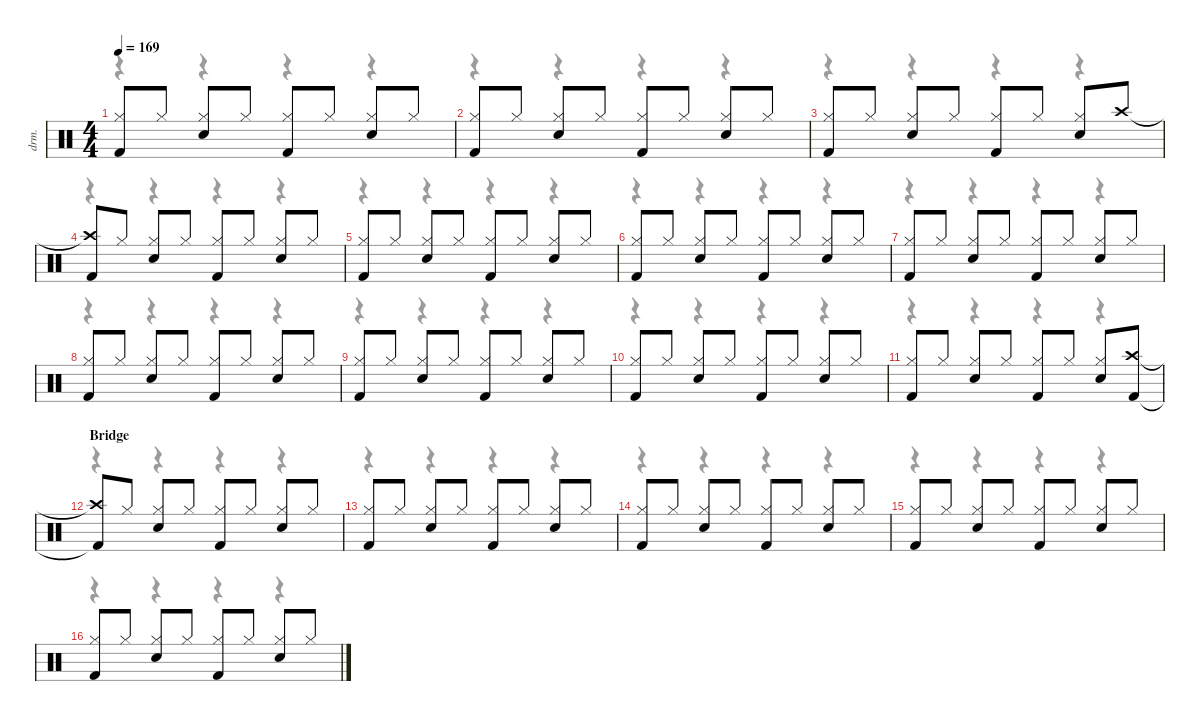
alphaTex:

\defaultSystemsLayout 4
\hideDynamics
\bracketExtendMode nobrackets
\otherSystemsTrackNameOrientation horizontal
\track ("Drums" "drm.") {instrument percussion}
\staff {score}
\articulation defaults
\voice
\ts (4 4)
\tempo 169
\clef neutral
\ks c
("Hi-Hat (closed)" "Kick (hit) 2").8{dy f} "Hi-Hat (closed)".8 ("Hi-Hat (closed)" "Snare (hit) 2").8 "Hi-Hat (closed)".8 ("Hi-Hat (closed)" "Kick (hit) 2").8 "Hi-Hat (closed)".8 ("Hi-Hat (closed)" "Snare (hit) 2").8 "Hi-Hat (closed)".8 |
("Hi-Hat (closed)" "Kick (hit) 2").8 "Hi-Hat (closed)".8 ("Hi-Hat (closed)" "Snare (hit) 2").8 "Hi-Hat (closed)".8 ("Hi-Hat (closed)" "Kick (hit) 2").8 "Hi-Hat (closed)".8 ("Hi-Hat (closed)" "Snare (hit) 2").8 "Hi-Hat (closed)".8 |
("Hi-Hat (closed)" "Kick (hit) 2").8 "Hi-Hat (closed)".8 ("Hi-Hat (closed)" "Snare (hit) 2").8 "Hi-Hat (closed)".8 ("Hi-Hat (closed)" "Kick (hit) 2").8 "Hi-Hat (closed)".8 ("Hi-Hat (closed)" "Snare (hit) 2").8 "Crash high (hit)".8 |
("Crash high (hit)"{t} "Kick (hit) 2").8 "Hi-Hat (closed)".8 ("Hi-Hat (closed)" "Snare (hit) 2").8 "Hi-Hat (closed)".8 ("Hi-Hat (closed)" "Kick (hit) 2").8 "Hi-Hat (closed)".8 ("Hi-Hat (closed)" "Snare (hit) 2").8 "Hi-Hat (closed)".8 |
("Hi-Hat (closed)" "Kick (hit) 2").8 "Hi-Hat (closed)".8 ("Hi-Hat (closed)" "Snare (hit) 2").8 "Hi-Hat (closed)".8 ("Hi-Hat (closed)" "Kick (hit) 2").8 "Hi-Hat (closed)".8 ("Hi-Hat (closed)" "Snare (hit) 2").8 "Hi-Hat (closed)".8 |
("Hi-Hat (closed)" "Kick (hit) 2").8 "Hi-Hat (closed)".8 ("Hi-Hat (closed)" "Snare (hit) 2").8 "Hi-Hat (closed)".8 ("Hi-Hat (closed)" "Kick (hit) 2").8 "Hi-Hat (closed)".8 ("Hi-Hat (closed)" "Snare (hit) 2").8 "Hi-Hat (closed)".8 |
("Hi-Hat (closed)" "Kick (hit) 2").8 "Hi-Hat (closed)".8 ("Hi-Hat (closed)" "Snare (hit) 2").8 "Hi-Hat (closed)".8 ("Hi-Hat (closed)" "Kick (hit) 2").8 "Hi-Hat (closed)".8 ("Hi-Hat (closed)" "Snare (hit) 2").8 "Hi-Hat (closed)".8 |
("Hi-Hat (closed)" "Kick (hit) 2").8 "Hi-Hat (closed)".8 ("Hi-Hat (closed)" "Snare (hit) 2").8 "Hi-Hat (closed)".8 ("Hi-Hat (closed)" "Kick (hit) 2").8 "Hi-Hat (closed)".8 ("Hi-Hat (closed)" "Snare (hit) 2").8 "Hi-Hat (closed)".8 |
("Hi-Hat (closed)" "Kick (hit) 2").8 "Hi-Hat (closed)".8 ("Hi-Hat (closed)" "Snare (hit) 2").8 "Hi-Hat (closed)".8 ("Hi-Hat (closed)" "Kick (hit) 2").8 "Hi-Hat (closed)".8 ("Hi-Hat (closed)" "Snare (hit) 2").8 "Hi-Hat (closed)".8 |
("Hi-Hat (closed)" "Kick (hit) 2").8 "Hi-Hat (closed)".8 ("Hi-Hat (closed)" "Snare (hit) 2").8 "Hi-Hat (closed)".8 ("Hi-Hat (closed)" "Kick (hit) 2").8 "Hi-Hat (closed)".8 ("Hi-Hat (closed)" "Snare (hit) 2").8 "Hi-Hat (closed)".8 |
("Hi-Hat (closed)" "Kick (hit) 2").8 "Hi-Hat (closed)".8 ("Hi-Hat (closed)" "Snare (hit) 2").8 "Hi-Hat (closed)".8 ("Hi-Hat (closed)" "Kick (hit) 2").8 "Hi-Hat (closed)".8 ("Hi-Hat (closed)" "Snare (hit) 2").8 ("Crash high (hit)" "Kick (hit) 2").8{dy ff} |
\section ("" "Bridge")
("Crash high (hit)"{t} "Kick (hit) 2"{t}).8{dy f} "Hi-Hat (closed)".8 ("Hi-Hat (closed)" "Snare (hit) 2").8 "Hi-Hat (closed)".8 ("Hi-Hat (closed)" "Kick (hit) 2").8 "Hi-Hat (closed)".8 ("Hi-Hat (closed)" "Snare (hit) 2").8 "Hi-Hat (closed)".8 |
("Hi-Hat (closed)" "Kick (hit) 2").8 "Hi-Hat (closed)".8 ("Hi-Hat (closed)" "Snare (hit) 2").8 "Hi-Hat (closed)".8 ("Hi-Hat (closed)" "Kick (hit) 2").8 "Hi-Hat (closed)".8 ("Hi-Hat (closed)" "Snare (hit) 2").8 "Hi-Hat (closed)".8 |
("Hi-Hat (closed)" "Kick (hit) 2").8 "Hi-Hat (closed)".8 ("Hi-Hat (closed)" "Snare (hit) 2").8 "Hi-Hat (closed)".8 ("Hi-Hat (closed)" "Kick (hit) 2").8 "Hi-Hat (closed)".8 ("Hi-Hat (closed)" "Snare (hit) 2").8 "Hi-Hat (closed)".8 |
("Hi-Hat (closed)" "Kick (hit) 2").8 "Hi-Hat (closed)".8 ("Hi-Hat (closed)" "Snare (hit) 2").8 "Hi-Hat (closed)".8 ("Hi-Hat (closed)" "Kick (hit) 2").8 "Hi-Hat (closed)".8 ("Hi-Hat (closed)" "Snare (hit) 2").8 "Hi-Hat (closed)".8 |
("Hi-Hat (closed)" "Kick (hit) 2").8 "Hi-Hat (closed)".8 ("Hi-Hat (closed)" "Snare (hit) 2").8 "Hi-Hat (closed)".8 ("Hi-Hat (closed)" "Kick (hit) 2").8 "Hi-Hat (closed)".8 ("Hi-Hat (closed)" "Snare (hit) 2").8 "Hi-Hat (closed)".8
\voice
\clef neutral
\ottava regular
\simile none
\ks c
r.4{dy mf} r.4 r.4 r.4 |
r.4 r.4 r.4 r.4 |
r.4 r.4 r.4 r.4 |
r.4 r.4 r.4 r.4 |
r.4 r.4 r.4 r.4 |
r.4 r.4 r.4 r.4 |
r.4 r.4 r.4 r.4 |
r.4 r.4 r.4 r.4 |
r.4 r.4 r.4 r.4 |
r.4 r.4 r.4 r.4 |
r.4 r.4 r.4 r.4 |
r.4 r.4 r.4 r.4 |
r.4 r.4 r.4 r.4 |
r.4 r.4 r.4 r.4 |
r.4 r.4 r.4 r.4 |
r.4 r.4 r.4 r.4
